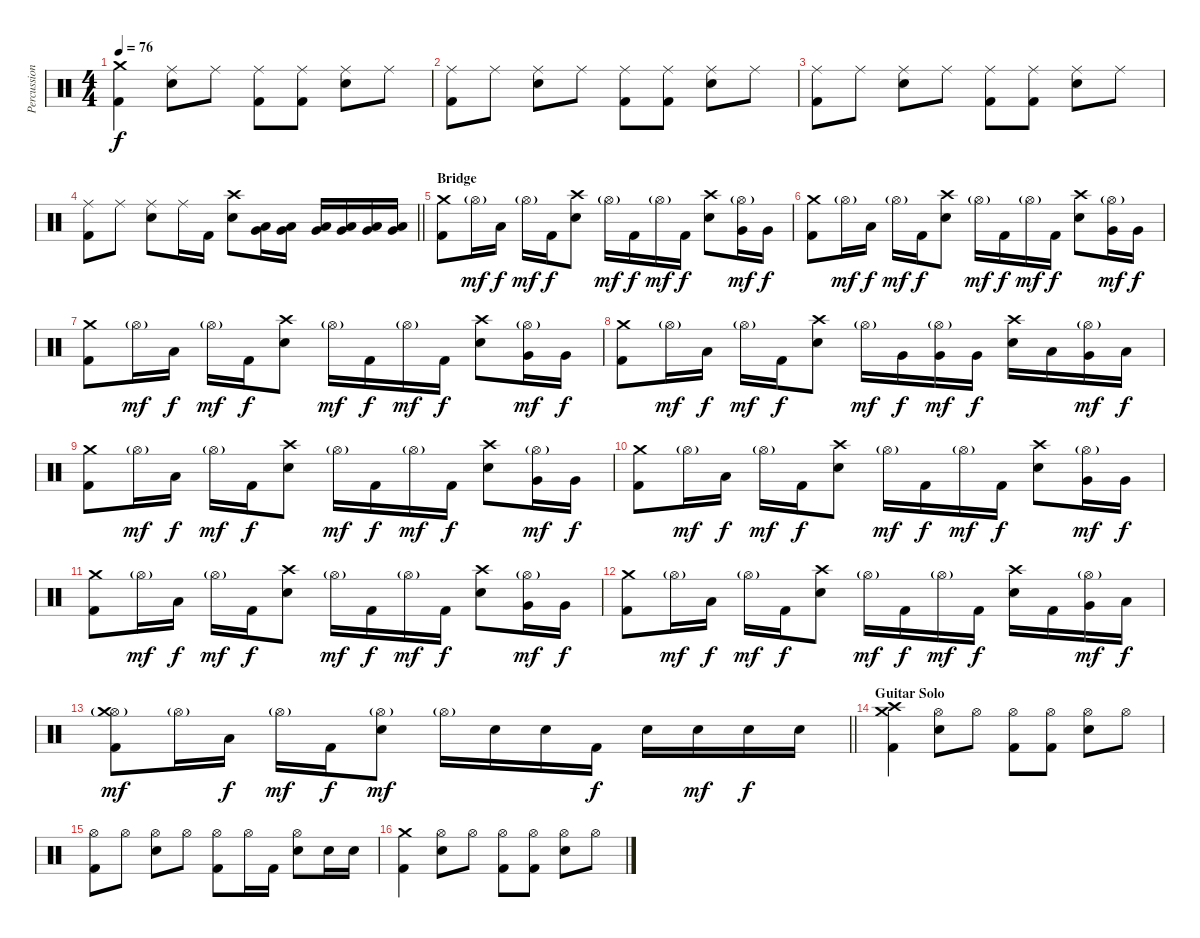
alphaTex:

\track ("Percussion" "Percussion") {instrument percussion}
\staff {score}
\articulation defaults
\ts (4 4)
\tempo 76
\clef neutral
\ks c
("Crash medium (hit)" "Kick (hit) 2").4{dy f} ("Ride (middle)" "Electric Snare (hit)").8 "Ride (middle)".8 ("Ride (middle)" "Kick (hit) 2").8 ("Ride (middle)" "Kick (hit) 2").8 ("Ride (middle)" "Electric Snare (hit)").8 "Ride (middle)".8 |
("Ride (middle)" "Kick (hit) 2").8 "Ride (middle)".8 ("Ride (middle)" "Electric Snare (hit)").8 "Ride (middle)".8 ("Ride (middle)" "Kick (hit) 2").8 ("Ride (middle)" "Kick (hit) 2").8 ("Ride (middle)" "Electric Snare (hit)").8 "Ride (middle)".8 |
("Ride (middle)" "Kick (hit) 2").8 "Ride (middle)".8 ("Ride (middle)" "Electric Snare (hit)").8 "Ride (middle)".8 ("Ride (middle)" "Kick (hit) 2").8 ("Ride (middle)" "Kick (hit) 2").8 ("Ride (middle)" "Electric Snare (hit)").8 "Ride (middle)".8 |
\barLineRight lightlight
("Ride (middle)" "Kick (hit) 2").8 "Ride (middle)".8 ("Ride (middle)" "Electric Snare (hit)").8 "Ride (middle)".16 "Kick (hit) 2".16 ("Crash high (hit)" "Electric Snare (hit)").8 ("Very Low Tom (hit)" "Low Floor Tom (hit)").16 ("Very Low Tom (hit)" "Low Floor Tom (hit)").16 ("Very Low Tom (hit)" "Low Floor Tom (hit)").16 ("Very Low Tom (hit)" "Low Floor Tom (hit)").16 ("Very Low Tom (hit)" "Low Floor Tom (hit)").16 ("Very Low Tom (hit)" "Low Floor Tom (hit)").16 |
\section ("" "Bridge")
("Crash medium (hit)" "Kick (hit) 2").8 "Hi-Hat (open)"{g}.16{dy mf} "Low Tom (hit)".16{dy f} "Hi-Hat (open)"{g}.16{dy mf} "Kick (hit) 2".16{dy f} ("Crash high (hit)" "Electric Snare (hit)").8 "Hi-Hat (open)"{g}.16{dy mf} "Kick (hit) 2".16{dy f} "Hi-Hat (open)"{g}.16{dy mf} "Kick (hit) 2".16{dy f} ("Crash high (hit)" "Electric Snare (hit)").8 ("Hi-Hat (open)"{g} "Very Low Tom (hit)").16{dy mf} "Very Low Tom (hit)".16{dy f} |
("Crash medium (hit)" "Kick (hit) 2").8 "Hi-Hat (open)"{g}.16{dy mf} "Low Tom (hit)".16{dy f} "Hi-Hat (open)"{g}.16{dy mf} "Kick (hit) 2".16{dy f} ("Crash high (hit)" "Electric Snare (hit)").8 "Hi-Hat (open)"{g}.16{dy mf} "Kick (hit) 2".16{dy f} "Hi-Hat (open)"{g}.16{dy mf} "Kick (hit) 2".16{dy f} ("Crash high (hit)" "Electric Snare (hit)").8 ("Hi-Hat (open)"{g} "Very Low Tom (hit)").16{dy mf} "Very Low Tom (hit)".16{dy f} |
("Crash medium (hit)" "Kick (hit) 2").8 "Hi-Hat (open)"{g}.16{dy mf} "Low Tom (hit)".16{dy f} "Hi-Hat (open)"{g}.16{dy mf} "Kick (hit) 2".16{dy f} ("Crash high (hit)" "Electric Snare (hit)").8 "Hi-Hat (open)"{g}.16{dy mf} "Kick (hit) 2".16{dy f} "Hi-Hat (open)"{g}.16{dy mf} "Kick (hit) 2".16{dy f} ("Crash high (hit)" "Electric Snare (hit)").8 ("Hi-Hat (open)"{g} "Very Low Tom (hit)").16{dy mf} "Very Low Tom (hit)".16{dy f} |
("Crash medium (hit)" "Kick (hit) 2").8 "Hi-Hat (open)"{g}.16{dy mf} "Low Tom (hit)".16{dy f} "Hi-Hat (open)"{g}.16{dy mf} "Kick (hit) 2".16{dy f} ("Crash high (hit)" "Electric Snare (hit)").8 "Hi-Hat (open)"{g}.16{dy mf} "Very Low Tom (hit)".16{dy f} ("Hi-Hat (open)"{g} "Very Low Tom (hit)").16{dy mf} "Very Low Tom (hit)".16{dy f} ("Crash high (hit)" "Electric Snare (hit)").16 "Low Tom (hit)".16 ("Hi-Hat (open)"{g} "Very Low Tom (hit)").16{dy mf} "Low Floor Tom (hit)".16{dy f} |
("Crash medium (hit)" "Kick (hit) 2").8 "Hi-Hat (open)"{g}.16{dy mf} "Low Tom (hit)".16{dy f} "Hi-Hat (open)"{g}.16{dy mf} "Kick (hit) 2".16{dy f} ("Crash high (hit)" "Electric Snare (hit)").8 "Hi-Hat (open)"{g}.16{dy mf} "Kick (hit) 2".16{dy f} "Hi-Hat (open)"{g}.16{dy mf} "Kick (hit) 2".16{dy f} ("Crash high (hit)" "Electric Snare (hit)").8 ("Hi-Hat (open)"{g} "Very Low Tom (hit)").16{dy mf} "Very Low Tom (hit)".16{dy f} |
("Crash medium (hit)" "Kick (hit) 2").8 "Hi-Hat (open)"{g}.16{dy mf} "Low Tom (hit)".16{dy f} "Hi-Hat (open)"{g}.16{dy mf} "Kick (hit) 2".16{dy f} ("Crash high (hit)" "Electric Snare (hit)").8 "Hi-Hat (open)"{g}.16{dy mf} "Kick (hit) 2".16{dy f} "Hi-Hat (open)"{g}.16{dy mf} "Kick (hit) 2".16{dy f} ("Crash high (hit)" "Electric Snare (hit)").8 ("Hi-Hat (open)"{g} "Very Low Tom (hit)").16{dy mf} "Very Low Tom (hit)".16{dy f} |
("Crash medium (hit)" "Kick (hit) 2").8 "Hi-Hat (open)"{g}.16{dy mf} "Low Tom (hit)".16{dy f} "Hi-Hat (open)"{g}.16{dy mf} "Kick (hit) 2".16{dy f} ("Crash high (hit)" "Electric Snare (hit)").8 "Hi-Hat (open)"{g}.16{dy mf} "Kick (hit) 2".16{dy f} "Hi-Hat (open)"{g}.16{dy mf} "Kick (hit) 2".16{dy f} ("Crash high (hit)" "Electric Snare (hit)").8 ("Hi-Hat (open)"{g} "Very Low Tom (hit)").16{dy mf} "Very Low Tom (hit)".16{dy f} |
("Crash medium (hit)" "Kick (hit) 2").8 "Hi-Hat (open)"{g}.16{dy mf} "Low Tom (hit)".16{dy f} "Hi-Hat (open)"{g}.16{dy mf} "Kick (hit) 2".16{dy f} ("Crash high (hit)" "Electric Snare (hit)").8 "Hi-Hat (open)"{g}.16{dy mf} "Kick (hit) 2".16{dy f} "Hi-Hat (open)"{g}.16{dy mf} "Kick (hit) 2".16{dy f} ("Crash high (hit)" "Electric Snare (hit)").16 "Kick (hit) 2".16 ("Hi-Hat (open)"{g} "Very Low Tom (hit)").16{dy mf} "Low Floor Tom (hit)".16{dy f} |
\barLineRight lightlight
("Hi-Hat (open)"{g} "Crash medium (hit)" "Kick (hit) 2").8{dy mf} "Hi-Hat (open)"{g}.16 "Low Tom (hit)".16{dy f} "Hi-Hat (open)"{g}.16{dy mf} "Kick (hit) 2".16{dy f} ("Hi-Hat (open)"{g} "Electric Snare (hit)").8{dy mf} "Hi-Hat (open)"{g}.16 "Electric Snare (hit)".16 "Electric Snare (hit)".16 "Kick (hit) 2".16{dy f} "Electric Snare (hit)".16 "Electric Snare (hit)".16{dy mf} "Electric Snare (hit)".16{dy f} "Electric Snare (hit)".16 |
\section ("" "Guitar Solo")
("Crash medium (hit)" "Crash high (hit)" "Kick (hit) 2").4 ("Hi-Hat (open)" "Electric Snare (hit)").8 "Hi-Hat (open)".8 ("Hi-Hat (open)" "Kick (hit) 2").8 ("Hi-Hat (open)" "Kick (hit) 2").8 ("Hi-Hat (open)" "Electric Snare (hit)").8 "Hi-Hat (open)".8 |
("Hi-Hat (open)" "Kick (hit) 2").8 "Hi-Hat (open)".8 ("Hi-Hat (open)" "Electric Snare (hit)").8 "Hi-Hat (open)".8 ("Hi-Hat (open)" "Kick (hit) 2").8 "Hi-Hat (open)".16 "Kick (hit) 2".16 ("Hi-Hat (open)" "Electric Snare (hit)").8 "Electric Snare (hit)".16 "Electric Snare (hit)".16 |
("Crash medium (hit)" "Kick (hit) 2").4 ("Hi-Hat (open)" "Electric Snare (hit)").8 "Hi-Hat (open)".8 ("Hi-Hat (open)" "Kick (hit) 2").8 ("Hi-Hat (open)" "Kick (hit) 2").8 ("Hi-Hat (open)" "Electric Snare (hit)").8 "Hi-Hat (open)".8
